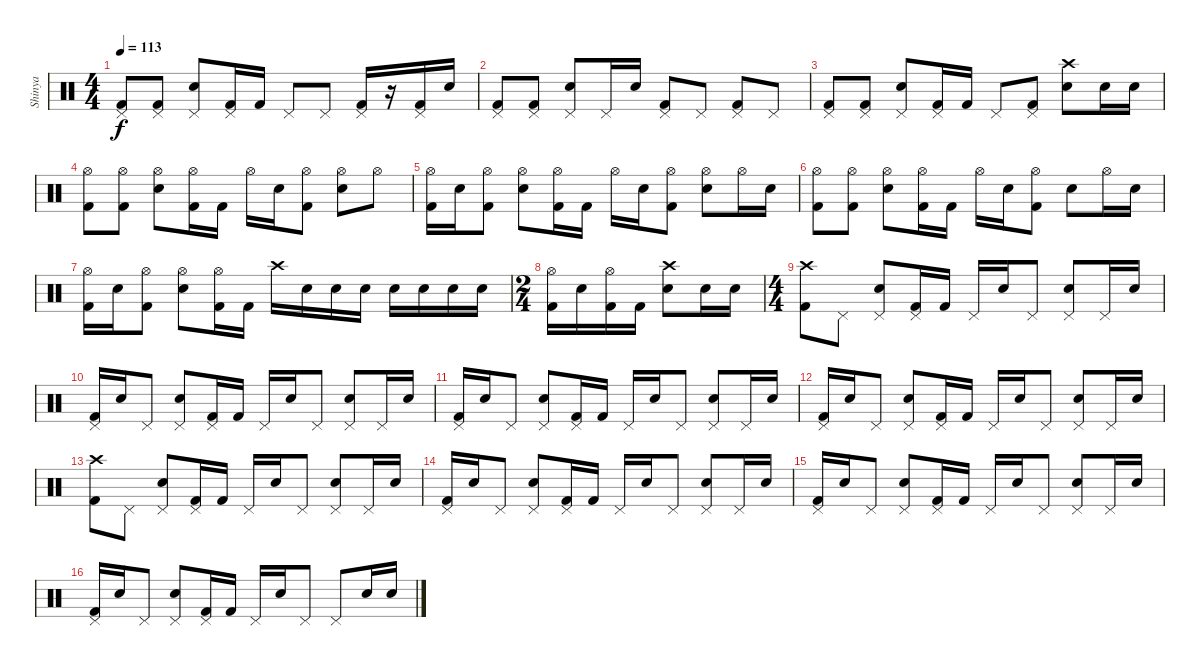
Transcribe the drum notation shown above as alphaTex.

\track ("Shinya" "Shinya") {instrument percussion}
\staff {score}
\articulation defaults
\ts (4 4)
\tempo 113
\clef neutral
\ks c
("Pedal Hi-Hat (hit)" "Kick (hit) 2").8{dy f} ("Pedal Hi-Hat (hit)" "Kick (hit) 2").8 ("Pedal Hi-Hat (hit)" "Electric Snare (hit)").8 ("Pedal Hi-Hat (hit)" "Kick (hit) 2").16 "Kick (hit) 2".16 "Pedal Hi-Hat (hit)".8 "Pedal Hi-Hat (hit)".8 ("Pedal Hi-Hat (hit)" "Kick (hit) 2").16 r.16 ("Pedal Hi-Hat (hit)" "Kick (hit) 2").16 "Electric Snare (hit)".16 |
("Pedal Hi-Hat (hit)" "Kick (hit) 2").8 ("Pedal Hi-Hat (hit)" "Kick (hit) 2").8 ("Pedal Hi-Hat (hit)" "Electric Snare (hit)").8 "Pedal Hi-Hat (hit)".16 "Electric Snare (hit)".16 ("Pedal Hi-Hat (hit)" "Kick (hit) 2").8 "Pedal Hi-Hat (hit)".8 ("Pedal Hi-Hat (hit)" "Kick (hit) 2").8 "Pedal Hi-Hat (hit)".8 |
("Pedal Hi-Hat (hit)" "Kick (hit) 2").8 ("Pedal Hi-Hat (hit)" "Kick (hit) 2").8 ("Pedal Hi-Hat (hit)" "Electric Snare (hit)").8 ("Pedal Hi-Hat (hit)" "Kick (hit) 2").16 "Kick (hit) 2".16 "Pedal Hi-Hat (hit)".8 ("Pedal Hi-Hat (hit)" "Kick (hit) 2").8 ("Crash high (hit)" "Electric Snare (hit)").8 "Electric Snare (hit)".16 "Electric Snare (hit)".16 |
("Hi-Hat (open)" "Kick (hit) 2").8 ("Hi-Hat (open)" "Kick (hit) 2").8 ("Hi-Hat (open)" "Electric Snare (hit)").8 ("Hi-Hat (open)" "Kick (hit) 2").16 "Kick (hit) 2".16 "Hi-Hat (open)".16 "Electric Snare (hit)".16 ("Hi-Hat (open)" "Kick (hit) 2").8 ("Hi-Hat (open)" "Electric Snare (hit)").8 "Hi-Hat (open)".8 |
("Hi-Hat (open)" "Kick (hit) 2").16 "Electric Snare (hit)".16 ("Hi-Hat (open)" "Kick (hit) 2").8 ("Hi-Hat (open)" "Electric Snare (hit)").8 ("Hi-Hat (open)" "Kick (hit) 2").16 "Kick (hit) 2".16 "Hi-Hat (open)".16 "Electric Snare (hit)".16 ("Hi-Hat (open)" "Kick (hit) 2").8 ("Hi-Hat (open)" "Electric Snare (hit)").8 "Hi-Hat (open)".16 "Electric Snare (hit)".16 |
("Hi-Hat (open)" "Kick (hit) 2").8 ("Hi-Hat (open)" "Kick (hit) 2").8 ("Hi-Hat (open)" "Electric Snare (hit)").8 ("Hi-Hat (open)" "Kick (hit) 2").16 "Kick (hit) 2".16 "Hi-Hat (open)".16 "Electric Snare (hit)".16 ("Hi-Hat (open)" "Kick (hit) 2").8 "Electric Snare (hit)".8 "Hi-Hat (open)".16 "Electric Snare (hit)".16 |
("Hi-Hat (open)" "Kick (hit) 2").16 "Electric Snare (hit)".16 ("Hi-Hat (open)" "Kick (hit) 2").8 ("Hi-Hat (open)" "Electric Snare (hit)").8 ("Hi-Hat (open)" "Kick (hit) 2").16 "Kick (hit) 2".16 "Crash high (hit)".16 "Electric Snare (hit)".16 "Electric Snare (hit)".16 "Electric Snare (hit)".16 "Electric Snare (hit)".16 "Electric Snare (hit)".16 "Electric Snare (hit)".16 "Electric Snare (hit)".16 |
\ts (2 4)
("Hi-Hat (open)" "Kick (hit) 2").16 "Electric Snare (hit)".16 ("Hi-Hat (open)" "Kick (hit) 2").16 "Kick (hit) 2".16 ("Crash high (hit)" "Electric Snare (hit)").8 "Electric Snare (hit)".16 "Electric Snare (hit)".16 |
\ts (4 4)
("Crash high (hit)" "Kick (hit) 2").8 "Pedal Hi-Hat (hit)".8 ("Pedal Hi-Hat (hit)" "Electric Snare (hit)").8 ("Pedal Hi-Hat (hit)" "Kick (hit) 2").16 "Kick (hit) 2".16 "Pedal Hi-Hat (hit)".16 "Electric Snare (hit)".16 "Pedal Hi-Hat (hit)".8 ("Pedal Hi-Hat (hit)" "Electric Snare (hit)").8 "Pedal Hi-Hat (hit)".16 "Electric Snare (hit)".16 |
("Pedal Hi-Hat (hit)" "Kick (hit) 2").16 "Electric Snare (hit)".16 "Pedal Hi-Hat (hit)".8 ("Pedal Hi-Hat (hit)" "Electric Snare (hit)").8 ("Pedal Hi-Hat (hit)" "Kick (hit) 2").16 "Kick (hit) 2".16 "Pedal Hi-Hat (hit)".16 "Electric Snare (hit)".16 "Pedal Hi-Hat (hit)".8 ("Pedal Hi-Hat (hit)" "Electric Snare (hit)").8 "Pedal Hi-Hat (hit)".16 "Electric Snare (hit)".16 |
("Pedal Hi-Hat (hit)" "Kick (hit) 2").16 "Electric Snare (hit)".16 "Pedal Hi-Hat (hit)".8 ("Pedal Hi-Hat (hit)" "Electric Snare (hit)").8 ("Pedal Hi-Hat (hit)" "Kick (hit) 2").16 "Kick (hit) 2".16 "Pedal Hi-Hat (hit)".16 "Electric Snare (hit)".16 "Pedal Hi-Hat (hit)".8 ("Pedal Hi-Hat (hit)" "Electric Snare (hit)").8 "Pedal Hi-Hat (hit)".16 "Electric Snare (hit)".16 |
("Pedal Hi-Hat (hit)" "Kick (hit) 2").16 "Electric Snare (hit)".16 "Pedal Hi-Hat (hit)".8 ("Pedal Hi-Hat (hit)" "Electric Snare (hit)").8 ("Pedal Hi-Hat (hit)" "Kick (hit) 2").16 "Kick (hit) 2".16 "Pedal Hi-Hat (hit)".16 "Electric Snare (hit)".16 "Pedal Hi-Hat (hit)".8 ("Pedal Hi-Hat (hit)" "Electric Snare (hit)").8 "Pedal Hi-Hat (hit)".16 "Electric Snare (hit)".16 |
("Crash high (hit)" "Kick (hit) 2").8 "Pedal Hi-Hat (hit)".8 ("Pedal Hi-Hat (hit)" "Electric Snare (hit)").8 ("Pedal Hi-Hat (hit)" "Kick (hit) 2").16 "Kick (hit) 2".16 "Pedal Hi-Hat (hit)".16 "Electric Snare (hit)".16 "Pedal Hi-Hat (hit)".8 ("Pedal Hi-Hat (hit)" "Electric Snare (hit)").8 "Pedal Hi-Hat (hit)".16 "Electric Snare (hit)".16 |
("Pedal Hi-Hat (hit)" "Kick (hit) 2").16 "Electric Snare (hit)".16 "Pedal Hi-Hat (hit)".8 ("Pedal Hi-Hat (hit)" "Electric Snare (hit)").8 ("Pedal Hi-Hat (hit)" "Kick (hit) 2").16 "Kick (hit) 2".16 "Pedal Hi-Hat (hit)".16 "Electric Snare (hit)".16 "Pedal Hi-Hat (hit)".8 ("Pedal Hi-Hat (hit)" "Electric Snare (hit)").8 "Pedal Hi-Hat (hit)".16 "Electric Snare (hit)".16 |
("Pedal Hi-Hat (hit)" "Kick (hit) 2").16 "Electric Snare (hit)".16 "Pedal Hi-Hat (hit)".8 ("Pedal Hi-Hat (hit)" "Electric Snare (hit)").8 ("Pedal Hi-Hat (hit)" "Kick (hit) 2").16 "Kick (hit) 2".16 "Pedal Hi-Hat (hit)".16 "Electric Snare (hit)".16 "Pedal Hi-Hat (hit)".8 ("Pedal Hi-Hat (hit)" "Electric Snare (hit)").8 "Pedal Hi-Hat (hit)".16 "Electric Snare (hit)".16 |
("Pedal Hi-Hat (hit)" "Kick (hit) 2").16 "Electric Snare (hit)".16 "Pedal Hi-Hat (hit)".8 ("Pedal Hi-Hat (hit)" "Electric Snare (hit)").8 ("Pedal Hi-Hat (hit)" "Kick (hit) 2").16 "Kick (hit) 2".16 "Pedal Hi-Hat (hit)".16 "Electric Snare (hit)".16 "Pedal Hi-Hat (hit)".8 "Pedal Hi-Hat (hit)".8 "Electric Snare (hit)".16 "Electric Snare (hit)".16
